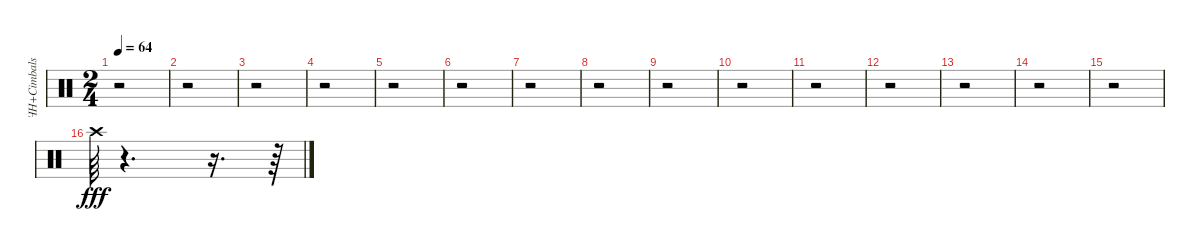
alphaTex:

\track ("HH+Cimbals" "HH+Cimbals") {instrument percussion}
\staff {score}
\articulation defaults
\ts (2 4)
\tempo 64
\clef neutral
\ks c
r.2{dy fff} |
r.2 |
r.2 |
r.2 |
r.2 |
r.2 |
r.2 |
r.2 |
r.2 |
r.2 |
r.2 |
r.2 |
r.2 |
r.2 |
r.2 |
"Crash high (hit)".64 r.4{d} r.16{d} r.64
